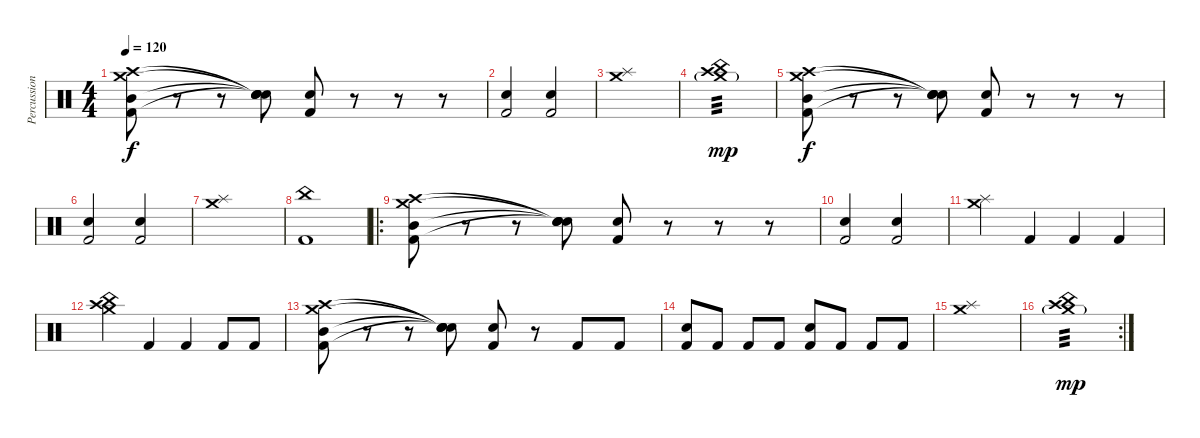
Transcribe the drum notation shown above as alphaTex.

\track ("Percussion" "Percussion") {instrument percussion}
\staff {score}
\articulation defaults
\ts (4 4)
\tempo 120
\clef neutral
\ks c
("Mid Tom (hit)" "Crash medium (hit)" "Kick (hit) 2" "Crash high (hit)").8{dy f} r.8 r.8 ("Snare (hit)"{t} "Snare (hit)"{t} "Snare (hit)"{t} "Snare (hit)"{t}).8 ("Metronome (bell)" "Kick (hit) 2").8 r.8 r.8 r.8 |
("Metronome (bell)" "Kick (hit) 2").2 ("Metronome (bell)" "Kick (hit) 2").2 |
("Crash medium (hit)" "Splash (hit)").1 |
("China (hit)" "Crash medium (hit)"{g} "Crash high (hit)").1{tp 3 dy mp} |
("Mid Tom (hit)" "Crash medium (hit)" "Kick (hit) 2" "Crash high (hit)").8{dy f} r.8 r.8 ("Snare (hit)"{t} "Snare (hit)"{t} "Snare (hit)"{t} "Snare (hit)"{t}).8 ("Metronome (bell)" "Kick (hit) 2").8 r.8 r.8 r.8 |
("Metronome (bell)" "Kick (hit) 2").2 ("Metronome (bell)" "Kick (hit) 2").2 |
("Crash medium (hit)" "Splash (hit)").1 |
("China (hit)" "Kick (hit) 2").1 |
\ro
("Mid Tom (hit)" "Crash medium (hit)" "Kick (hit) 2" "Crash high (hit)").8 r.8 r.8 ("Snare (hit)"{t} "Snare (hit)"{t} "Snare (hit)"{t} "Snare (hit)"{t}).8 ("Metronome (bell)" "Kick (hit) 2").8 r.8 r.8 r.8 |
("Metronome (bell)" "Kick (hit) 2").2 ("Metronome (bell)" "Kick (hit) 2").2 |
("Crash medium (hit)" "Splash (hit)").4 "Kick (hit) 2".4 "Kick (hit) 2".4 "Kick (hit) 2".4 |
("China (hit)" "Crash medium (hit)" "Crash high (hit)").4 "Kick (hit) 2".4 "Kick (hit) 2".4 "Kick (hit) 2".8 "Kick (hit) 2".8 |
("Mid Tom (hit)" "Crash medium (hit)" "Kick (hit) 2" "Crash high (hit)").8 r.8 r.8 ("Snare (hit)"{t} "Snare (hit)"{t} "Snare (hit)"{t} "Snare (hit)"{t}).8 ("Metronome (bell)" "Kick (hit) 2").8 r.8 "Kick (hit) 2".8 "Kick (hit) 2".8 |
("Metronome (bell)" "Kick (hit) 2").8 "Kick (hit) 2".8 "Kick (hit) 2".8 "Kick (hit) 2".8 ("Metronome (bell)" "Kick (hit) 2").8 "Kick (hit) 2".8 "Kick (hit) 2".8 "Kick (hit) 2".8 |
("Crash medium (hit)" "Splash (hit)").1 |
\rc 2
("China (hit)" "Crash medium (hit)"{g} "Crash high (hit)").1{tp 3 dy mp}
